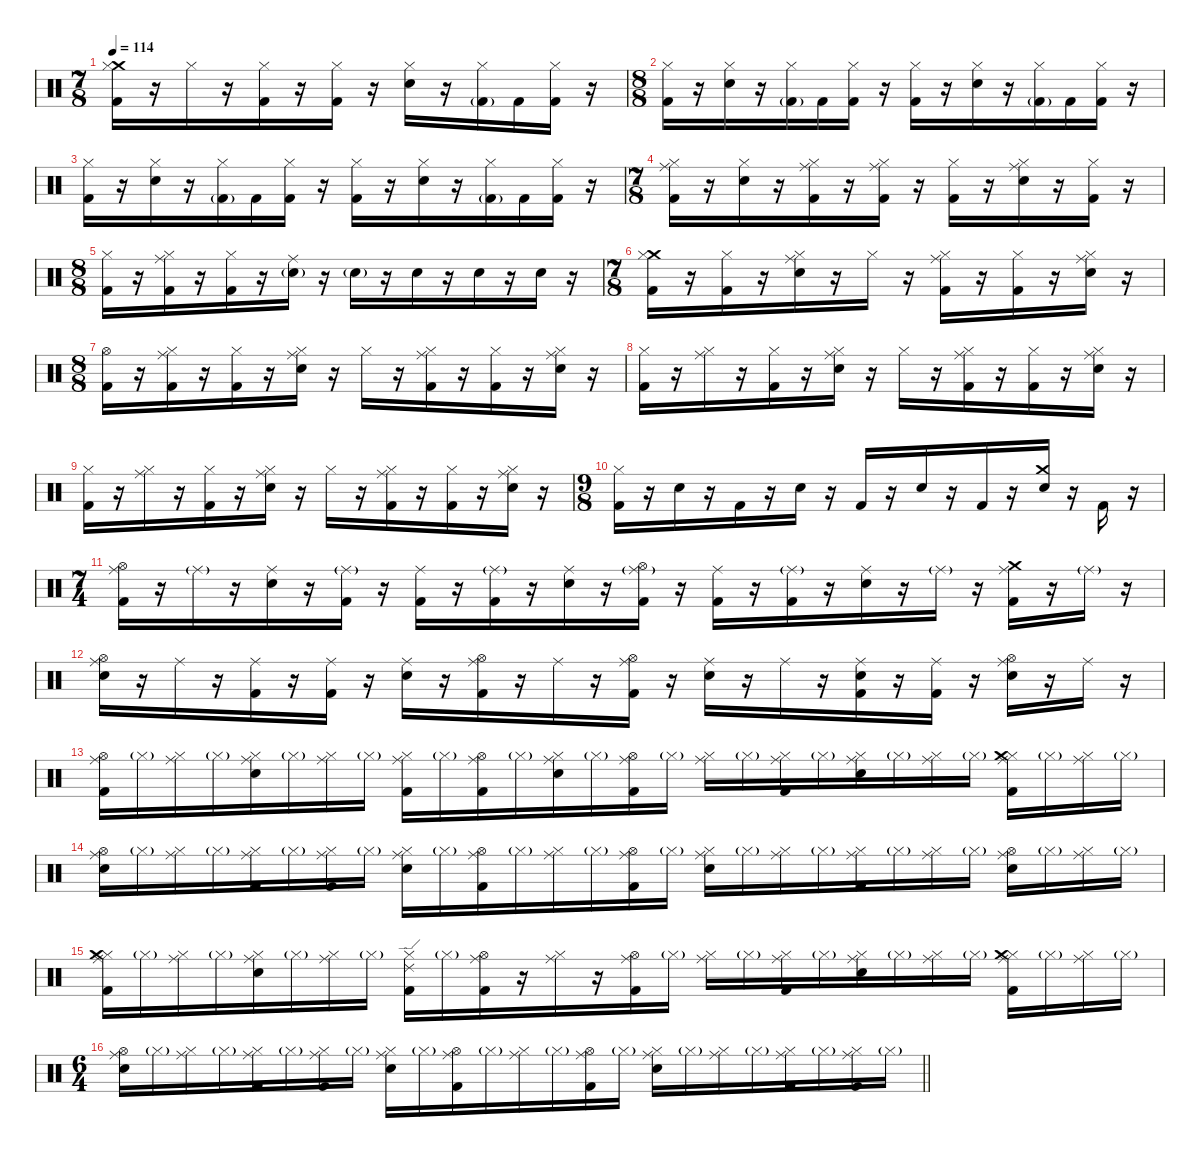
\defaultSystemsLayout 4
\hideDynamics
\bracketExtendMode nobrackets
\singleTrackTrackNamePolicy hidden
\multiTrackTrackNamePolicy hidden
\firstSystemTrackNameMode fullname
\firstSystemTrackNameOrientation horizontal
\otherSystemsTrackNameOrientation horizontal
\track ("Drums" "drm.") {instrument percussion}
\staff {score}
\articulation defaults
\ts (7 8)
\beaming (8 4 4 4 4)
\tempo 114
\clef neutral
\ks c
("Crash medium (hit)" "Hi-Hat (closed)" "Kick (hit) 2").16{dy f beam Down} r.16{beam Down} "Hi-Hat (closed)".16{beam Down} r.16{beam Down} ("Hi-Hat (closed)" "Kick (hit) 2").16{beam Down} r.16{beam Down} ("Hi-Hat (closed)" "Kick (hit) 2").16{beam Down} r.16{beam Down} ("Hi-Hat (closed)" "Snare (hit) 2").16{beam Down} r.16{beam Down} ("Hi-Hat (closed)" "Kick (hit) 2"{g}).16{beam Down} "Kick (hit) 2".16{beam Down} ("Hi-Hat (closed)" "Kick (hit) 2").16{beam Down} r.16{beam Down} |
\ts (8 8)
\beaming (8 4 4 4 4)
("Hi-Hat (closed)" "Kick (hit) 2").16{beam Down} r.16{beam Down} ("Hi-Hat (closed)" "Snare (hit) 2").16{beam Down} r.16{beam Down} ("Hi-Hat (closed)" "Kick (hit) 2"{g}).16{beam Down} "Kick (hit) 2".16{beam Down} ("Hi-Hat (closed)" "Kick (hit) 2").16{beam Down} r.16{beam Down} ("Hi-Hat (closed)" "Kick (hit) 2").16{beam Down} r.16{beam Down} ("Hi-Hat (closed)" "Snare (hit) 2").16{beam Down} r.16{beam Down} ("Hi-Hat (closed)" "Kick (hit) 2"{g}).16{beam Down} "Kick (hit) 2".16{beam Down} ("Hi-Hat (closed)" "Kick (hit) 2").16{beam Down} r.16{beam Down} |
("Hi-Hat (closed)" "Kick (hit) 2").16{beam Down} r.16{beam Down} ("Hi-Hat (closed)" "Snare (hit) 2").16{beam Down} r.16{beam Down} ("Hi-Hat (closed)" "Kick (hit) 2"{g}).16{beam Down} "Kick (hit) 2".16{beam Down} ("Hi-Hat (closed)" "Kick (hit) 2").16{beam Down} r.16{beam Down} ("Hi-Hat (closed)" "Kick (hit) 2").16{beam Down} r.16{beam Down} ("Hi-Hat (closed)" "Snare (hit) 2").16{beam Down} r.16{beam Down} ("Hi-Hat (closed)" "Kick (hit) 2"{g}).16{beam Down} "Kick (hit) 2".16{beam Down} ("Hi-Hat (closed)" "Kick (hit) 2").16{beam Down} r.16{beam Down} |
\ts (7 8)
\beaming (8 4 4 4 4)
("Ride (middle)" "Hi-Hat (closed)" "Kick (hit) 2").16{beam Down} r.16{beam Down} ("Hi-Hat (closed)" "Snare (hit) 2").16{beam Down} r.16{beam Down} ("Ride (middle)" "Hi-Hat (closed)" "Kick (hit) 2").16{beam Down} r.16{beam Down} ("Ride (middle)" "Hi-Hat (closed)" "Kick (hit) 2").16{beam Down} r.16{beam Down} ("Hi-Hat (closed)" "Kick (hit) 2").16{beam Down} r.16{beam Down} ("Ride (middle)" "Hi-Hat (closed)" "Snare (hit) 2").16{beam Down} r.16{beam Down} ("Hi-Hat (closed)" "Kick (hit) 2").16{beam Down} r.16{beam Down} |
\ts (8 8)
\beaming (8 4 4 4 4)
("Hi-Hat (closed)" "Kick (hit) 2").16{beam Down} r.16{beam Down} ("Ride (middle)" "Hi-Hat (closed)" "Kick (hit) 2").16{beam Down} r.16{beam Down} ("Hi-Hat (closed)" "Kick (hit) 2").16{beam Down} r.16{beam Down} ("Ride (middle)" "Snare (hit) 2"{g}).16{beam Down} r.16{beam Down} "Snare (hit) 2"{g}.16{dy mf beam Down} r.16{beam Down} "Snare (hit) 2".16{dy f beam Down} r.16{beam Down} "Snare (hit) 2".16{beam Down} r.16{beam Down} "Snare (hit) 2".16{beam Down} r.16{beam Down} |
\ts (7 8)
\beaming (8 4 4 4 4)
("Crash medium (hit)" "Hi-Hat (closed)" "Kick (hit) 2").16{beam Down} r.16{beam Down} ("Hi-Hat (closed)" "Kick (hit) 2").16{beam Down} r.16{beam Down} ("Ride (middle)" "Hi-Hat (closed)" "Snare (hit) 2").16{beam Down} r.16{beam Down} "Hi-Hat (closed)".16{beam Down} r.16{beam Down} ("Ride (middle)" "Hi-Hat (closed)" "Kick (hit) 2").16{beam Down} r.16{beam Down} ("Hi-Hat (closed)" "Kick (hit) 2").16{beam Down} r.16{beam Down} ("Ride (middle)" "Hi-Hat (closed)" "Snare (hit) 2").16{beam Down} r.16{beam Down} |
\ts (8 8)
\beaming (8 4 4 4 4)
("Hi-Hat (open)" "Kick (hit) 2").16{beam Down} r.16{beam Down} ("Ride (middle)" "Hi-Hat (closed)" "Kick (hit) 2").16{beam Down} r.16{beam Down} ("Hi-Hat (closed)" "Kick (hit) 2").16{beam Down} r.16{beam Down} ("Ride (middle)" "Hi-Hat (closed)" "Snare (hit) 2").16{beam Down} r.16{beam Down} "Hi-Hat (closed)".16{beam Down} r.16{beam Down} ("Ride (middle)" "Hi-Hat (closed)" "Kick (hit) 2").16{beam Down} r.16{beam Down} ("Hi-Hat (closed)" "Kick (hit) 2").16{beam Down} r.16{beam Down} ("Ride (middle)" "Hi-Hat (closed)" "Snare (hit) 2").16{beam Down} r.16{beam Down} |
("Hi-Hat (closed)" "Kick (hit) 2").16{beam Down} r.16{beam Down} ("Ride (middle)" "Hi-Hat (closed)").16{beam Down} r.16{beam Down} ("Hi-Hat (closed)" "Kick (hit) 2").16{beam Down} r.16{beam Down} ("Ride (middle)" "Hi-Hat (closed)" "Snare (hit) 2").16{beam Down} r.16{beam Down} "Hi-Hat (closed)".16{beam Down} r.16{beam Down} ("Ride (middle)" "Hi-Hat (closed)" "Kick (hit) 2").16{beam Down} r.16{beam Down} ("Hi-Hat (closed)" "Kick (hit) 2").16{beam Down} r.16{beam Down} ("Ride (middle)" "Hi-Hat (closed)" "Snare (hit) 2").16{beam Down} r.16{beam Down} |
("Hi-Hat (closed)" "Kick (hit) 2").16{beam Down} r.16{beam Down} ("Ride (middle)" "Hi-Hat (closed)").16{beam Down} r.16{beam Down} ("Hi-Hat (closed)" "Kick (hit) 2").16{beam Down} r.16{beam Down} ("Ride (middle)" "Hi-Hat (closed)" "Snare (hit) 2").16{beam Down} r.16{beam Down} "Hi-Hat (closed)".16{beam Down} r.16{beam Down} ("Ride (middle)" "Hi-Hat (closed)" "Kick (hit) 2").16{beam Down} r.16{beam Down} ("Hi-Hat (closed)" "Kick (hit) 2").16{beam Down} r.16{beam Down} ("Ride (middle)" "Hi-Hat (closed)" "Snare (hit) 2").16{beam Down} r.16{beam Down} |
\ts (9 8)
\beaming (8 4 4 4 4)
("Hi-Hat (closed)" "Kick (hit) 2").16{beam Down} r.16{beam Down} "Snare (hit) 2".16{beam Down} r.16{beam Down} "Kick (hit) 2".16{beam Down} r.16{beam Down} "Snare (hit) 2".16{beam Down} r.16{beam Up} "Kick (hit) 2".16{beam Up} r.16{beam Up} "Snare (hit) 2".16{beam Up} r.16{beam Up} "Kick (hit) 2".16{beam Up} r.16{beam Up} ("Crash medium (hit)" "Snare (hit) 2").16{beam Up} r.16{beam Down} "Kick (hit) 2".16{beam Down} r.16{beam Down} |
\ts (7 4)
\beaming (8 4 4 4 4)
("Ride (middle)" "Hi-Hat (open)" "Kick (hit) 2").16{beam Down} r.16{beam Down} "Ride (middle)"{g}.16{dy mf beam Down} r.16{beam Down} ("Ride (middle)" "Snare (hit) 2").16{dy f beam Down} r.16{beam Down} ("Ride (middle)"{g} "Kick (hit) 2").16{beam Down} r.16{beam Down} ("Ride (middle)" "Kick (hit) 2").16{beam Down} r.16{beam Down} ("Ride (middle)"{g} "Kick (hit) 2").16{beam Down} r.16{beam Down} ("Ride (middle)" "Snare (hit) 2").16{beam Down} r.16{beam Down} ("Ride (middle)"{g} "Hi-Hat (open)" "Kick (hit) 2").16{beam Down} r.16{beam Down} ("Ride (middle)" "Kick (hit) 2").16{beam Down} r.16{beam Down} ("Ride (middle)"{g} "Kick (hit) 2").16{beam Down} r.16{beam Down} ("Ride (middle)" "Snare (hit) 2").16{beam Down} r.16{beam Down} "Ride (middle)"{g}.16{dy mf beam Down} r.16{beam Down} ("Ride (middle)" "Crash medium (hit)" "Kick (hit) 2").16{dy f beam Down} r.16{beam Down} "Ride (middle)"{g}.16{dy mf beam Down} r.16{beam Down} |
("Ride (middle)" "Hi-Hat (open)" "Snare (hit) 2").16{dy f beam Down} r.16{beam Down} "Ride (middle)".16{beam Down} r.16{beam Down} ("Ride (middle)" "Kick (hit) 2").16{beam Down} r.16{beam Down} ("Ride (middle)" "Kick (hit) 2").16{beam Down} r.16{beam Down} ("Ride (middle)" "Snare (hit) 2").16{beam Down} r.16{beam Down} ("Ride (middle)" "Hi-Hat (open)" "Kick (hit) 2").16{beam Down} r.16{beam Down} "Ride (middle)".16{beam Down} r.16{beam Down} ("Ride (middle)" "Hi-Hat (open)" "Kick (hit) 2").16{beam Down} r.16{beam Down} ("Ride (middle)" "Snare (hit) 2").16{beam Down} r.16{beam Down} "Ride (middle)".16{beam Down} r.16{beam Down} ("Ride (middle)" "Snare (hit) 2" "Kick (hit) 2").16{beam Down} r.16{beam Down} ("Ride (middle)" "Kick (hit) 2").16{beam Down} r.16{beam Down} ("Ride (middle)" "Hi-Hat (open)" "Snare (hit) 2").16{beam Down} r.16{beam Down} "Ride (middle)".16{beam Down} r.16{beam Down} |
("Ride (middle)" "Hi-Hat (open)" "Kick (hit) 2").16{beam Down} "Hi-Hat (closed)"{g}.16{dy mf beam Down} ("Ride (middle)" "Hi-Hat (closed)").16{dy f beam Down} "Hi-Hat (closed)"{g}.16{dy mf beam Down} ("Ride (middle)" "Hi-Hat (closed)" "Snare (hit) 2").16{dy f beam Down} "Hi-Hat (closed)"{g}.16{dy mf beam Down} ("Ride (middle)" "Hi-Hat (closed)").16{dy f beam Down} "Hi-Hat (closed)"{g}.16{dy mf beam Down} ("Ride (middle)" "Hi-Hat (closed)" "Kick (hit) 2").16{dy f beam Down} "Hi-Hat (closed)"{g}.16{dy mf beam Down} ("Ride (middle)" "Hi-Hat (open)" "Kick (hit) 2").16{dy f beam Down} "Hi-Hat (closed)"{g}.16{dy mf beam Down} ("Ride (middle)" "Hi-Hat (closed)" "Snare (hit) 2").16{dy f beam Down} "Hi-Hat (closed)"{g}.16{dy mf beam Down} ("Ride (middle)" "Hi-Hat (open)" "Kick (hit) 2").16{dy f beam Down} "Hi-Hat (closed)"{g}.16{dy mf beam Down} ("Ride (middle)" "Hi-Hat (closed)").16{dy f beam Down} "Hi-Hat (closed)"{g}.16{dy mf beam Down} ("Ride (middle)" "Hi-Hat (closed)" "Kick (hit) 2").16{dy f beam Down} "Hi-Hat (closed)"{g}.16{dy mf beam Down} ("Ride (middle)" "Hi-Hat (closed)" "Snare (hit) 2").16{dy f beam Down} "Hi-Hat (closed)"{g}.16{dy mf beam Down} ("Ride (middle)" "Hi-Hat (closed)").16{dy f beam Down} "Hi-Hat (closed)"{g}.16{dy mf beam Down} ("Ride (middle)" "Hi-Hat (closed)" "Crash medium (hit)" "Kick (hit) 2").16{dy f beam Down} "Hi-Hat (closed)"{g}.16{dy mf beam Down} ("Ride (middle)" "Hi-Hat (closed)").16{dy f beam Down} "Hi-Hat (closed)"{g}.16{dy mf beam Down} |
("Ride (middle)" "Hi-Hat (open)" "Snare (hit) 2").16{dy f beam Down} "Hi-Hat (closed)"{g}.16{dy mf beam Down} ("Ride (middle)" "Hi-Hat (closed)").16{dy f beam Down} "Hi-Hat (closed)"{g}.16{dy mf beam Down} ("Ride (middle)" "Hi-Hat (closed)" "Kick (hit) 2").16{dy f beam Down} "Hi-Hat (closed)"{g}.16{dy mf beam Down} ("Ride (middle)" "Hi-Hat (closed)" "Kick (hit) 2").16{dy f beam Down} "Hi-Hat (closed)"{g}.16{dy mf beam Down} ("Ride (middle)" "Hi-Hat (closed)" "Snare (hit) 2").16{dy f beam Down} "Hi-Hat (closed)"{g}.16{dy mf beam Down} ("Ride (middle)" "Hi-Hat (open)" "Kick (hit) 2").16{dy f beam Down} "Hi-Hat (closed)"{g}.16{dy mf beam Down} ("Ride (middle)" "Hi-Hat (closed)").16{dy f beam Down} "Hi-Hat (closed)"{g}.16{dy mf beam Down} ("Ride (middle)" "Hi-Hat (open)" "Kick (hit) 2").16{dy f beam Down} "Hi-Hat (closed)"{g}.16{dy mf beam Down} ("Ride (middle)" "Hi-Hat (closed)" "Snare (hit) 2").16{dy f beam Down} "Hi-Hat (closed)"{g}.16{dy mf beam Down} ("Ride (middle)" "Hi-Hat (closed)").16{dy f beam Down} "Hi-Hat (closed)"{g}.16{dy mf beam Down} ("Ride (middle)" "Hi-Hat (closed)" "Kick (hit) 2").16{dy f beam Down} "Hi-Hat (closed)"{g}.16{dy mf beam Down} ("Ride (middle)" "Hi-Hat (closed)").16{dy f beam Down} "Hi-Hat (closed)"{g}.16{dy mf beam Down} ("Ride (middle)" "Hi-Hat (open)" "Snare (hit) 2").16{dy f beam Down} "Hi-Hat (closed)"{g}.16{dy mf beam Down} ("Ride (middle)" "Hi-Hat (closed)").16{dy f beam Down} "Hi-Hat (closed)"{g}.16{dy mf beam Down} |
("Ride (middle)" "Hi-Hat (closed)" "Crash medium (hit)" "Kick (hit) 2").16{dy f beam Down} "Hi-Hat (closed)"{g}.16{dy mf beam Down} ("Ride (middle)" "Hi-Hat (closed)").16{dy f beam Down} "Hi-Hat (closed)"{g}.16{dy mf beam Down} ("Ride (middle)" "Hi-Hat (closed)" "Snare (hit) 2").16{dy f beam Down} "Hi-Hat (closed)"{g}.16{dy mf beam Down} ("Ride (middle)" "Hi-Hat (closed)").16{dy f beam Down} "Hi-Hat (closed)"{g}.16{dy mf beam Down} ("Ride (edge) 2" "Hi-Hat (closed)" "Kick (hit) 2").16{dy f beam Down} "Hi-Hat (closed)"{g}.16{dy mf beam Down} ("Ride (middle)" "Hi-Hat (open)" "Kick (hit) 2").16{dy f beam Down} r.16{beam Down} ("Ride (middle)" "Hi-Hat (closed)").16{beam Down} r.16{beam Down} ("Ride (middle)" "Hi-Hat (open)" "Kick (hit) 2").16{beam Down} "Hi-Hat (closed)"{g}.16{dy mf beam Down} ("Ride (middle)" "Hi-Hat (closed)").16{dy f beam Down} "Hi-Hat (closed)"{g}.16{dy mf beam Down} ("Ride (middle)" "Hi-Hat (closed)" "Kick (hit) 2").16{dy f beam Down} "Hi-Hat (closed)"{g}.16{dy mf beam Down} ("Ride (middle)" "Hi-Hat (closed)" "Snare (hit) 2").16{dy f beam Down} "Hi-Hat (closed)"{g}.16{dy mf beam Down} ("Ride (middle)" "Hi-Hat (closed)").16{dy f beam Down} "Hi-Hat (closed)"{g}.16{dy mf beam Down} ("Ride (middle)" "Hi-Hat (closed)" "Crash medium (hit)" "Kick (hit) 2").16{dy f beam Down} "Hi-Hat (closed)"{g}.16{dy mf beam Down} ("Ride (middle)" "Hi-Hat (closed)").16{dy f beam Down} "Hi-Hat (closed)"{g}.16{dy mf beam Down} |
\ts (6 4)
\beaming (8 4 4 4 4)
\barLineRight lightlight
("Ride (middle)" "Hi-Hat (open)" "Snare (hit) 2").16{dy f beam Down} "Hi-Hat (closed)"{g}.16{dy mf beam Down} ("Ride (middle)" "Hi-Hat (closed)").16{dy f beam Down} "Hi-Hat (closed)"{g}.16{dy mf beam Down} ("Ride (middle)" "Hi-Hat (closed)" "Kick (hit) 2").16{dy f beam Down} "Hi-Hat (closed)"{g}.16{dy mf beam Down} ("Ride (middle)" "Hi-Hat (closed)" "Kick (hit) 2").16{dy f beam Down} "Hi-Hat (closed)"{g}.16{dy mf beam Down} ("Ride (middle)" "Hi-Hat (closed)" "Snare (hit) 2").16{dy f beam Down} "Hi-Hat (closed)"{g}.16{dy mf beam Down} ("Ride (middle)" "Hi-Hat (open)" "Kick (hit) 2").16{dy f beam Down} "Hi-Hat (closed)"{g}.16{dy mf beam Down} ("Ride (middle)" "Hi-Hat (closed)").16{dy f beam Down} "Hi-Hat (closed)"{g}.16{dy mf beam Down} ("Ride (middle)" "Hi-Hat (open)" "Kick (hit) 2").16{dy f beam Down} "Hi-Hat (closed)"{g}.16{dy mf beam Down} ("Ride (middle)" "Hi-Hat (closed)" "Snare (hit) 2").16{dy f beam Down} "Hi-Hat (closed)"{g}.16{dy mf beam Down} ("Ride (middle)" "Hi-Hat (closed)").16{dy f beam Down} "Hi-Hat (closed)"{g}.16{dy mf beam Down} ("Ride (middle)" "Hi-Hat (closed)" "Kick (hit) 2").16{dy f beam Down} "Hi-Hat (closed)"{g}.16{dy mf beam Down} ("Ride (middle)" "Hi-Hat (closed)" "Kick (hit) 2").16{dy f beam Down} "Hi-Hat (closed)"{g}.16{dy mf beam Down}
